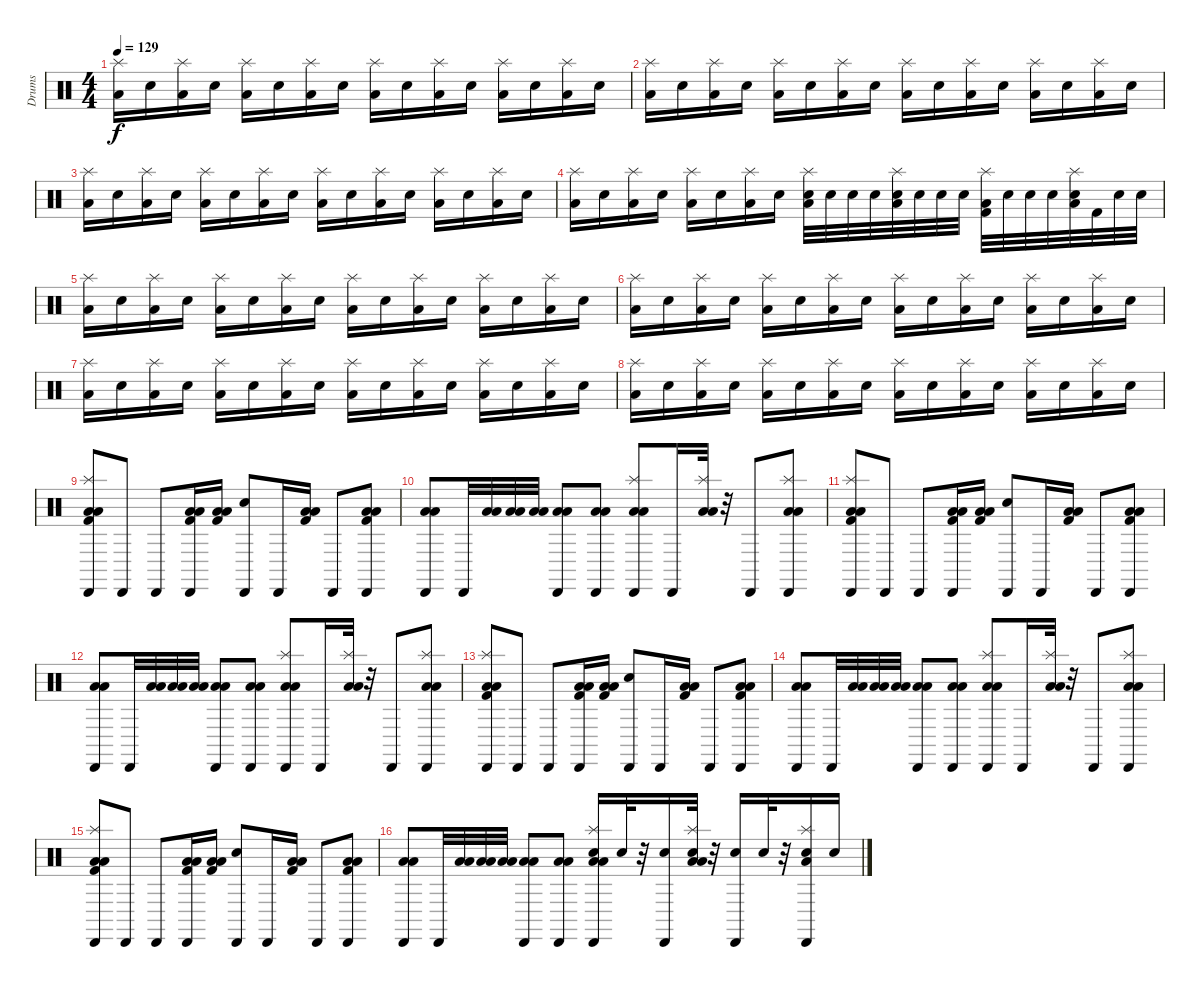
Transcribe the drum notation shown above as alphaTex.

\track ("Drums" "Drums") {instrument percussion}
\staff {score}
\articulation defaults
\ts (4 4)
\tempo 129
\clef neutral
\ks c
("Splash (hit)" "Low Tom (hit)").16{dy f} "Electric Snare (hit)".16 ("Splash (hit)" "Low Tom (hit)").16 "Electric Snare (hit)".16 ("Splash (hit)" "Low Tom (hit)").16 "Electric Snare (hit)".16 ("Splash (hit)" "Low Tom (hit)").16 "Electric Snare (hit)".16 ("Splash (hit)" "Low Tom (hit)").16 "Electric Snare (hit)".16 ("Splash (hit)" "Low Tom (hit)").16 "Electric Snare (hit)".16 ("Splash (hit)" "Low Tom (hit)").16 "Electric Snare (hit)".16 ("Splash (hit)" "Low Tom (hit)").16 "Electric Snare (hit)".16 |
("Splash (hit)" "Low Tom (hit)").16 "Electric Snare (hit)".16 ("Splash (hit)" "Low Tom (hit)").16 "Electric Snare (hit)".16 ("Splash (hit)" "Low Tom (hit)").16 "Electric Snare (hit)".16 ("Splash (hit)" "Low Tom (hit)").16 "Electric Snare (hit)".16 ("Splash (hit)" "Low Tom (hit)").16 "Electric Snare (hit)".16 ("Splash (hit)" "Low Tom (hit)").16 "Electric Snare (hit)".16 ("Splash (hit)" "Low Tom (hit)").16 "Electric Snare (hit)".16 ("Splash (hit)" "Low Tom (hit)").16 "Electric Snare (hit)".16 |
("Splash (hit)" "Low Tom (hit)").16 "Electric Snare (hit)".16 ("Splash (hit)" "Low Tom (hit)").16 "Electric Snare (hit)".16 ("Splash (hit)" "Low Tom (hit)").16 "Electric Snare (hit)".16 ("Splash (hit)" "Low Tom (hit)").16 "Electric Snare (hit)".16 ("Splash (hit)" "Low Tom (hit)").16 "Electric Snare (hit)".16 ("Splash (hit)" "Low Tom (hit)").16 "Electric Snare (hit)".16 ("Splash (hit)" "Low Tom (hit)").16 "Electric Snare (hit)".16 ("Splash (hit)" "Low Tom (hit)").16 "Electric Snare (hit)".16 |
("Splash (hit)" "Low Tom (hit)").16 "Electric Snare (hit)".16 ("Splash (hit)" "Low Tom (hit)").16 "Electric Snare (hit)".16 ("Splash (hit)" "Low Tom (hit)").16 "Electric Snare (hit)".16 ("Splash (hit)" "Low Tom (hit)").16 "Electric Snare (hit)".16 ("Electric Snare (hit)" "Splash (hit)" "Low Tom (hit)").32 "Electric Snare (hit)".32 "Electric Snare (hit)".32 "Electric Snare (hit)".32 ("Electric Snare (hit)" "Splash (hit)" "Low Tom (hit)").32 "Electric Snare (hit)".32 "Electric Snare (hit)".32 "Electric Snare (hit)".32 ("Kick (hit) 2" "Splash (hit)" "Low Tom (hit)").32 "Electric Snare (hit)".32 "Electric Snare (hit)".32 "Electric Snare (hit)".32 ("Electric Snare (hit)" "Splash (hit)" "Low Tom (hit)").32 "Kick (hit) 2".32 "Electric Snare (hit)".32 "Electric Snare (hit)".32 |
("Splash (hit)" "Low Tom (hit)").16 "Electric Snare (hit)".16 ("Splash (hit)" "Low Tom (hit)").16 "Electric Snare (hit)".16 ("Splash (hit)" "Low Tom (hit)").16 "Electric Snare (hit)".16 ("Splash (hit)" "Low Tom (hit)").16 "Electric Snare (hit)".16 ("Splash (hit)" "Low Tom (hit)").16 "Electric Snare (hit)".16 ("Splash (hit)" "Low Tom (hit)").16 "Electric Snare (hit)".16 ("Splash (hit)" "Low Tom (hit)").16 "Electric Snare (hit)".16 ("Splash (hit)" "Low Tom (hit)").16 "Electric Snare (hit)".16 |
("Splash (hit)" "Low Tom (hit)").16 "Electric Snare (hit)".16 ("Splash (hit)" "Low Tom (hit)").16 "Electric Snare (hit)".16 ("Splash (hit)" "Low Tom (hit)").16 "Electric Snare (hit)".16 ("Splash (hit)" "Low Tom (hit)").16 "Electric Snare (hit)".16 ("Splash (hit)" "Low Tom (hit)").16 "Electric Snare (hit)".16 ("Splash (hit)" "Low Tom (hit)").16 "Electric Snare (hit)".16 ("Splash (hit)" "Low Tom (hit)").16 "Electric Snare (hit)".16 ("Splash (hit)" "Low Tom (hit)").16 "Electric Snare (hit)".16 |
("Splash (hit)" "Low Tom (hit)").16 "Electric Snare (hit)".16 ("Splash (hit)" "Low Tom (hit)").16 "Electric Snare (hit)".16 ("Splash (hit)" "Low Tom (hit)").16 "Electric Snare (hit)".16 ("Splash (hit)" "Low Tom (hit)").16 "Electric Snare (hit)".16 ("Splash (hit)" "Low Tom (hit)").16 "Electric Snare (hit)".16 ("Splash (hit)" "Low Tom (hit)").16 "Electric Snare (hit)".16 ("Splash (hit)" "Low Tom (hit)").16 "Electric Snare (hit)".16 ("Splash (hit)" "Low Tom (hit)").16 "Electric Snare (hit)".16 |
("Splash (hit)" "Low Tom (hit)").16 "Electric Snare (hit)".16 ("Splash (hit)" "Low Tom (hit)").16 "Electric Snare (hit)".16 ("Splash (hit)" "Low Tom (hit)").16 "Electric Snare (hit)".16 ("Splash (hit)" "Low Tom (hit)").16 "Electric Snare (hit)".16 ("Splash (hit)" "Low Tom (hit)").16 "Electric Snare (hit)".16 ("Splash (hit)" "Low Tom (hit)").16 "Electric Snare (hit)".16 ("Splash (hit)" "Low Tom (hit)").16 "Electric Snare (hit)".16 ("Splash (hit)" "Low Tom (hit)").16 "Electric Snare (hit)".16 |
("Cabasa (hit)" "Low Tom (hit)" "Low Floor Tom (hit)" "Kick (hit) 2" "Splash (hit)").8 "Cabasa (hit)".8 "Cabasa (hit)".8 ("Kick (hit) 2" "Low Floor Tom (hit)" "Low Tom (hit)" "Cabasa (hit)").16 ("Kick (hit) 2" "Low Floor Tom (hit)" "Low Tom (hit)").16 ("Electric Snare (hit)" "Cabasa (hit)").8 "Cabasa (hit)".16 ("Kick (hit) 2" "Low Tom (hit)" "Low Floor Tom (hit)").16 "Cabasa (hit)".8 ("Kick (hit) 2" "Low Tom (hit)" "Low Floor Tom (hit)" "Cabasa (hit)").8 |
("Low Floor Tom (hit)" "Low Tom (hit)" "Cabasa (hit)").8 "Cabasa (hit)".32 ("Low Floor Tom (hit)" "Low Tom (hit)").32 ("Low Tom (hit)" "Low Floor Tom (hit)").32 ("Low Floor Tom (hit)" "Low Tom (hit)").32 ("Low Floor Tom (hit)" "Low Tom (hit)" "Cabasa (hit)").8 ("Low Tom (hit)" "Low Floor Tom (hit)" "Cabasa (hit)").8 ("Low Floor Tom (hit)" "Low Tom (hit)" "Splash (hit)" "Cabasa (hit)").8 "Cabasa (hit)".16 ("Low Floor Tom (hit)" "Low Tom (hit)" "Splash (hit)").32 r.32 "Cabasa (hit)".8 ("Low Tom (hit)" "Low Floor Tom (hit)" "Splash (hit)" "Cabasa (hit)").8 |
("Splash (hit)" "Kick (hit) 2" "Low Floor Tom (hit)" "Low Tom (hit)" "Cabasa (hit)").8 "Cabasa (hit)".8 "Cabasa (hit)".8 ("Kick (hit) 2" "Low Floor Tom (hit)" "Low Tom (hit)" "Cabasa (hit)").16 ("Kick (hit) 2" "Low Floor Tom (hit)" "Low Tom (hit)").16 ("Electric Snare (hit)" "Cabasa (hit)").8 "Cabasa (hit)".16 ("Kick (hit) 2" "Low Tom (hit)" "Low Floor Tom (hit)").16 "Cabasa (hit)".8 ("Kick (hit) 2" "Low Tom (hit)" "Low Floor Tom (hit)" "Cabasa (hit)").8 |
("Low Floor Tom (hit)" "Low Tom (hit)" "Cabasa (hit)").8 "Cabasa (hit)".32 ("Low Floor Tom (hit)" "Low Tom (hit)").32 ("Low Tom (hit)" "Low Floor Tom (hit)").32 ("Low Floor Tom (hit)" "Low Tom (hit)").32 ("Low Floor Tom (hit)" "Low Tom (hit)" "Cabasa (hit)").8 ("Low Tom (hit)" "Low Floor Tom (hit)" "Cabasa (hit)").8 ("Low Floor Tom (hit)" "Low Tom (hit)" "Splash (hit)" "Cabasa (hit)").8 "Cabasa (hit)".16 ("Low Floor Tom (hit)" "Low Tom (hit)" "Splash (hit)").32 r.32 "Cabasa (hit)".8 ("Low Tom (hit)" "Low Floor Tom (hit)" "Splash (hit)" "Cabasa (hit)").8 |
("Splash (hit)" "Kick (hit) 2" "Low Floor Tom (hit)" "Low Tom (hit)" "Cabasa (hit)").8 "Cabasa (hit)".8 "Cabasa (hit)".8 ("Kick (hit) 2" "Low Floor Tom (hit)" "Low Tom (hit)" "Cabasa (hit)").16 ("Kick (hit) 2" "Low Floor Tom (hit)" "Low Tom (hit)").16 ("Electric Snare (hit)" "Cabasa (hit)").8 "Cabasa (hit)".16 ("Kick (hit) 2" "Low Tom (hit)" "Low Floor Tom (hit)").16 "Cabasa (hit)".8 ("Kick (hit) 2" "Low Tom (hit)" "Low Floor Tom (hit)" "Cabasa (hit)").8 |
("Low Floor Tom (hit)" "Low Tom (hit)" "Cabasa (hit)").8 "Cabasa (hit)".32 ("Low Floor Tom (hit)" "Low Tom (hit)").32 ("Low Tom (hit)" "Low Floor Tom (hit)").32 ("Low Floor Tom (hit)" "Low Tom (hit)").32 ("Low Floor Tom (hit)" "Low Tom (hit)" "Cabasa (hit)").8 ("Low Tom (hit)" "Low Floor Tom (hit)" "Cabasa (hit)").8 ("Low Floor Tom (hit)" "Low Tom (hit)" "Splash (hit)" "Cabasa (hit)").8 "Cabasa (hit)".16 ("Low Floor Tom (hit)" "Low Tom (hit)" "Splash (hit)").32 r.32 "Cabasa (hit)".8 ("Low Tom (hit)" "Low Floor Tom (hit)" "Splash (hit)" "Cabasa (hit)").8 |
("Splash (hit)" "Kick (hit) 2" "Low Floor Tom (hit)" "Low Tom (hit)" "Cabasa (hit)").8 "Cabasa (hit)".8 "Cabasa (hit)".8 ("Kick (hit) 2" "Low Floor Tom (hit)" "Low Tom (hit)" "Cabasa (hit)").16 ("Kick (hit) 2" "Low Floor Tom (hit)" "Low Tom (hit)").16 ("Electric Snare (hit)" "Cabasa (hit)").8 "Cabasa (hit)".16 ("Kick (hit) 2" "Low Tom (hit)" "Low Floor Tom (hit)").16 "Cabasa (hit)".8 ("Kick (hit) 2" "Low Tom (hit)" "Low Floor Tom (hit)" "Cabasa (hit)").8 |
("Low Floor Tom (hit)" "Low Tom (hit)" "Cabasa (hit)").8 "Cabasa (hit)".32 ("Low Floor Tom (hit)" "Low Tom (hit)").32 ("Low Tom (hit)" "Low Floor Tom (hit)").32 ("Low Floor Tom (hit)" "Low Tom (hit)").32 ("Low Floor Tom (hit)" "Low Tom (hit)" "Cabasa (hit)").8 ("Low Tom (hit)" "Low Floor Tom (hit)" "Cabasa (hit)").8 ("Snare (hit) 2" "Low Floor Tom (hit)" "Low Tom (hit)" "Splash (hit)" "Cabasa (hit)").16 "Snare (hit) 2".32 r.32 ("Snare (hit) 2" "Cabasa (hit)").16 ("Snare (hit) 2" "Low Floor Tom (hit)" "Low Tom (hit)" "Splash (hit)").32 r.32 ("Snare (hit) 2" "Cabasa (hit)").16 "Electric Snare (hit)".32 r.32 ("Electric Snare (hit)" "Low Tom (hit)" "Splash (hit)" "Cabasa (hit)").16 "Electric Snare (hit)".16
